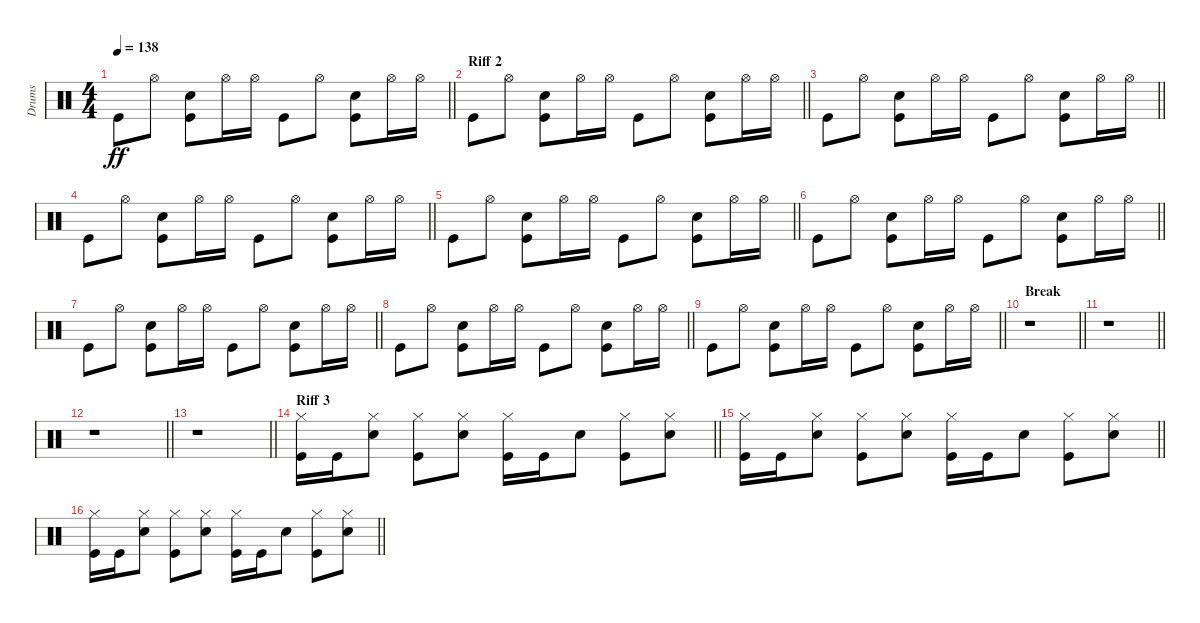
\track ("Drums" "Drums") {instrument percussion}
\staff {score}
\articulation defaults
\ts (4 4)
\tempo 138
\clef neutral
\barLineRight lightlight
\ks c "Kick (hit)".8{dy ff} "Hi-Hat (open)".8
("Kick (hit)" "Snare (hit) 2").8 "Hi-Hat (open)".16 "Hi-Hat (open)".16 "Kick (hit)".8 "Hi-Hat (open)".8 ("Kick (hit)" "Snare (hit) 2").8 "Hi-Hat (open)".16 "Hi-Hat (open)".16 |
\section ("" "Riff 2")
\barLineRight lightlight "Kick (hit)".8 "Hi-Hat (open)".8
("Kick (hit)" "Snare (hit) 2").8 "Hi-Hat (open)".16 "Hi-Hat (open)".16 "Kick (hit)".8 "Hi-Hat (open)".8 ("Kick (hit)" "Snare (hit) 2").8 "Hi-Hat (open)".16 "Hi-Hat (open)".16 |
\barLineRight lightlight "Kick (hit)".8 "Hi-Hat (open)".8
("Kick (hit)" "Snare (hit) 2").8 "Hi-Hat (open)".16 "Hi-Hat (open)".16 "Kick (hit)".8 "Hi-Hat (open)".8 ("Kick (hit)" "Snare (hit) 2").8 "Hi-Hat (open)".16 "Hi-Hat (open)".16 |
\barLineRight lightlight "Kick (hit)".8 "Hi-Hat (open)".8
("Kick (hit)" "Snare (hit) 2").8 "Hi-Hat (open)".16 "Hi-Hat (open)".16 "Kick (hit)".8 "Hi-Hat (open)".8 ("Kick (hit)" "Snare (hit) 2").8 "Hi-Hat (open)".16 "Hi-Hat (open)".16 |
\barLineRight lightlight "Kick (hit)".8 "Hi-Hat (open)".8
("Kick (hit)" "Snare (hit) 2").8 "Hi-Hat (open)".16 "Hi-Hat (open)".16 "Kick (hit)".8 "Hi-Hat (open)".8 ("Kick (hit)" "Snare (hit) 2").8 "Hi-Hat (open)".16 "Hi-Hat (open)".16 |
\barLineRight lightlight "Kick (hit)".8 "Hi-Hat (open)".8
("Kick (hit)" "Snare (hit) 2").8 "Hi-Hat (open)".16 "Hi-Hat (open)".16 "Kick (hit)".8 "Hi-Hat (open)".8 ("Kick (hit)" "Snare (hit) 2").8 "Hi-Hat (open)".16 "Hi-Hat (open)".16 |
\barLineRight lightlight "Kick (hit)".8 "Hi-Hat (open)".8
("Kick (hit)" "Snare (hit) 2").8 "Hi-Hat (open)".16 "Hi-Hat (open)".16 "Kick (hit)".8 "Hi-Hat (open)".8 ("Kick (hit)" "Snare (hit) 2").8 "Hi-Hat (open)".16 "Hi-Hat (open)".16 |
\barLineRight lightlight "Kick (hit)".8 "Hi-Hat (open)".8
("Kick (hit)" "Snare (hit) 2").8 "Hi-Hat (open)".16 "Hi-Hat (open)".16 "Kick (hit)".8 "Hi-Hat (open)".8 ("Kick (hit)" "Snare (hit) 2").8 "Hi-Hat (open)".16 "Hi-Hat (open)".16 |
\barLineRight lightlight "Kick (hit)".8 "Hi-Hat (open)".8
("Kick (hit)" "Snare (hit) 2").8 "Hi-Hat (open)".16 "Hi-Hat (open)".16 "Kick (hit)".8 "Hi-Hat (open)".8 ("Kick (hit)" "Snare (hit) 2").8 "Hi-Hat (open)".16 "Hi-Hat (open)".16 |
\section ("" "Break")
\barLineRight lightlight
r.1 |
\barLineRight lightlight
r.1 |
\barLineRight lightlight
r.1 |
\barLineRight lightlight
r.1 |
\section ("" "Riff 3")
\barLineRight lightlight
("Kick (hit)" "Hi-Hat (closed)").16 "Kick (hit)".16 ("Snare (hit) 2" "Hi-Hat (closed)").8 ("Kick (hit)" "Hi-Hat (closed)").8 ("Snare (hit) 2" "Hi-Hat (closed)").8 ("Kick (hit)" "Hi-Hat (closed)").16 "Kick (hit)".16 "Snare (hit) 2".8 ("Kick (hit)" "Hi-Hat (closed)").8 ("Snare (hit) 2" "Hi-Hat (closed)").8 |
\barLineRight lightlight
("Kick (hit)" "Hi-Hat (closed)").16 "Kick (hit)".16 ("Snare (hit) 2" "Hi-Hat (closed)").8 ("Kick (hit)" "Hi-Hat (closed)").8 ("Snare (hit) 2" "Hi-Hat (closed)").8 ("Kick (hit)" "Hi-Hat (closed)").16 "Kick (hit)".16 "Snare (hit) 2".8 ("Kick (hit)" "Hi-Hat (closed)").8 ("Snare (hit) 2" "Hi-Hat (closed)").8 |
\barLineRight lightlight
("Kick (hit)" "Hi-Hat (closed)").16 "Kick (hit)".16 ("Snare (hit) 2" "Hi-Hat (closed)").8 ("Kick (hit)" "Hi-Hat (closed)").8 ("Snare (hit) 2" "Hi-Hat (closed)").8 ("Kick (hit)" "Hi-Hat (closed)").16 "Kick (hit)".16 "Snare (hit) 2".8 ("Kick (hit)" "Hi-Hat (closed)").8 ("Snare (hit) 2" "Hi-Hat (closed)").8
